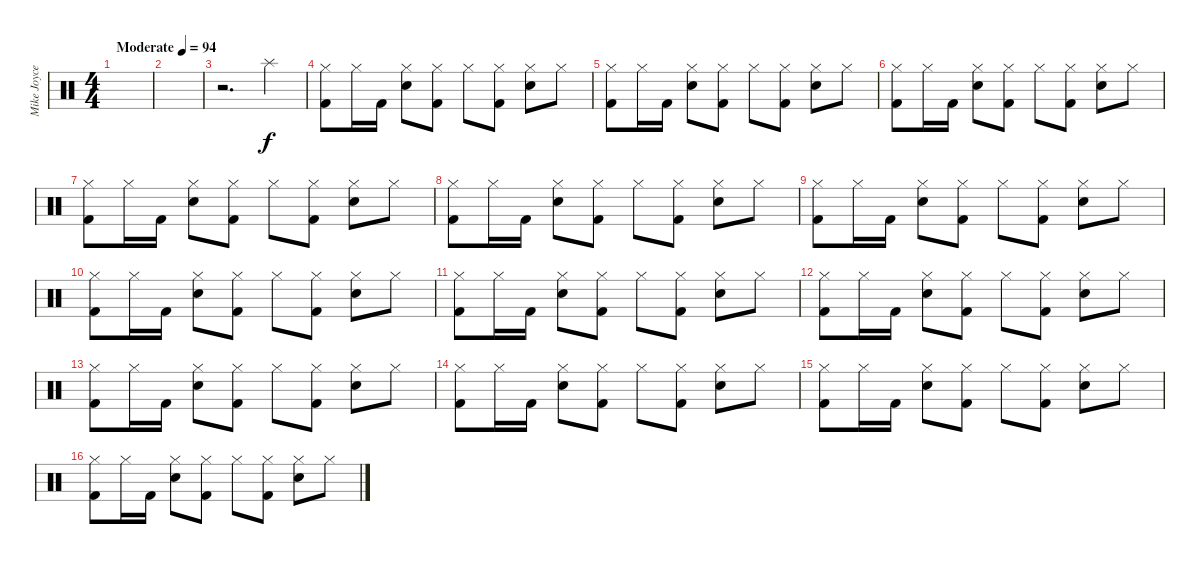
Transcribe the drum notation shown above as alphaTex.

\track ("Mike Joyce" "Mike Joyce") {instrument percussion}
\staff {score}
\articulation defaults
\ts (4 4)
\tempo (94 "Moderate")
\clef neutral
\ks c
|
|
r.2{d} "Splash (hit)".4 |
("Hi-Hat (closed)" "Kick (hit) 2").8{dy f} "Hi-Hat (closed)".16 "Kick (hit) 2".16 ("Hi-Hat (closed)" "Snare (hit) 2").8 ("Hi-Hat (closed)" "Kick (hit) 2").8 "Hi-Hat (closed)".8 ("Hi-Hat (closed)" "Kick (hit) 2").8 ("Hi-Hat (closed)" "Snare (hit) 2").8 "Hi-Hat (closed)".8 |
("Hi-Hat (closed)" "Kick (hit) 2").8 "Hi-Hat (closed)".16 "Kick (hit) 2".16 ("Hi-Hat (closed)" "Snare (hit) 2").8 ("Hi-Hat (closed)" "Kick (hit) 2").8 "Hi-Hat (closed)".8 ("Hi-Hat (closed)" "Kick (hit) 2").8 ("Hi-Hat (closed)" "Snare (hit) 2").8 "Hi-Hat (closed)".8 |
("Hi-Hat (closed)" "Kick (hit) 2").8 "Hi-Hat (closed)".16 "Kick (hit) 2".16 ("Hi-Hat (closed)" "Snare (hit) 2").8 ("Hi-Hat (closed)" "Kick (hit) 2").8 "Hi-Hat (closed)".8 ("Hi-Hat (closed)" "Kick (hit) 2").8 ("Hi-Hat (closed)" "Snare (hit) 2").8 "Hi-Hat (closed)".8 |
("Hi-Hat (closed)" "Kick (hit) 2").8 "Hi-Hat (closed)".16 "Kick (hit) 2".16 ("Hi-Hat (closed)" "Snare (hit) 2").8 ("Hi-Hat (closed)" "Kick (hit) 2").8 "Hi-Hat (closed)".8 ("Hi-Hat (closed)" "Kick (hit) 2").8 ("Hi-Hat (closed)" "Snare (hit) 2").8 "Hi-Hat (closed)".8 |
("Hi-Hat (closed)" "Kick (hit) 2").8 "Hi-Hat (closed)".16 "Kick (hit) 2".16 ("Hi-Hat (closed)" "Snare (hit) 2").8 ("Hi-Hat (closed)" "Kick (hit) 2").8 "Hi-Hat (closed)".8 ("Hi-Hat (closed)" "Kick (hit) 2").8 ("Hi-Hat (closed)" "Snare (hit) 2").8 "Hi-Hat (closed)".8 |
("Hi-Hat (closed)" "Kick (hit) 2").8 "Hi-Hat (closed)".16 "Kick (hit) 2".16 ("Hi-Hat (closed)" "Snare (hit) 2").8 ("Hi-Hat (closed)" "Kick (hit) 2").8 "Hi-Hat (closed)".8 ("Hi-Hat (closed)" "Kick (hit) 2").8 ("Hi-Hat (closed)" "Snare (hit) 2").8 "Hi-Hat (closed)".8 |
("Hi-Hat (closed)" "Kick (hit) 2").8 "Hi-Hat (closed)".16 "Kick (hit) 2".16 ("Hi-Hat (closed)" "Snare (hit) 2").8 ("Hi-Hat (closed)" "Kick (hit) 2").8 "Hi-Hat (closed)".8 ("Hi-Hat (closed)" "Kick (hit) 2").8 ("Hi-Hat (closed)" "Snare (hit) 2").8 "Hi-Hat (closed)".8 |
("Hi-Hat (closed)" "Kick (hit) 2").8 "Hi-Hat (closed)".16 "Kick (hit) 2".16 ("Hi-Hat (closed)" "Snare (hit) 2").8 ("Hi-Hat (closed)" "Kick (hit) 2").8 "Hi-Hat (closed)".8 ("Hi-Hat (closed)" "Kick (hit) 2").8 ("Hi-Hat (closed)" "Snare (hit) 2").8 "Hi-Hat (closed)".8 |
("Hi-Hat (closed)" "Kick (hit) 2").8 "Hi-Hat (closed)".16 "Kick (hit) 2".16 ("Hi-Hat (closed)" "Snare (hit) 2").8 ("Hi-Hat (closed)" "Kick (hit) 2").8 "Hi-Hat (closed)".8 ("Hi-Hat (closed)" "Kick (hit) 2").8 ("Hi-Hat (closed)" "Snare (hit) 2").8 "Hi-Hat (closed)".8 |
("Hi-Hat (closed)" "Kick (hit) 2").8 "Hi-Hat (closed)".16 "Kick (hit) 2".16 ("Hi-Hat (closed)" "Snare (hit) 2").8 ("Hi-Hat (closed)" "Kick (hit) 2").8 "Hi-Hat (closed)".8 ("Hi-Hat (closed)" "Kick (hit) 2").8 ("Hi-Hat (closed)" "Snare (hit) 2").8 "Hi-Hat (closed)".8 |
("Hi-Hat (closed)" "Kick (hit) 2").8 "Hi-Hat (closed)".16 "Kick (hit) 2".16 ("Hi-Hat (closed)" "Snare (hit) 2").8 ("Hi-Hat (closed)" "Kick (hit) 2").8 "Hi-Hat (closed)".8 ("Hi-Hat (closed)" "Kick (hit) 2").8 ("Hi-Hat (closed)" "Snare (hit) 2").8 "Hi-Hat (closed)".8 |
("Hi-Hat (closed)" "Kick (hit) 2").8 "Hi-Hat (closed)".16 "Kick (hit) 2".16 ("Hi-Hat (closed)" "Snare (hit) 2").8 ("Hi-Hat (closed)" "Kick (hit) 2").8 "Hi-Hat (closed)".8 ("Hi-Hat (closed)" "Kick (hit) 2").8 ("Hi-Hat (closed)" "Snare (hit) 2").8 "Hi-Hat (closed)".8 |
("Hi-Hat (closed)" "Kick (hit) 2").8 "Hi-Hat (closed)".16 "Kick (hit) 2".16 ("Hi-Hat (closed)" "Snare (hit) 2").8 ("Hi-Hat (closed)" "Kick (hit) 2").8 "Hi-Hat (closed)".8 ("Hi-Hat (closed)" "Kick (hit) 2").8 ("Hi-Hat (closed)" "Snare (hit) 2").8 "Hi-Hat (closed)".8
